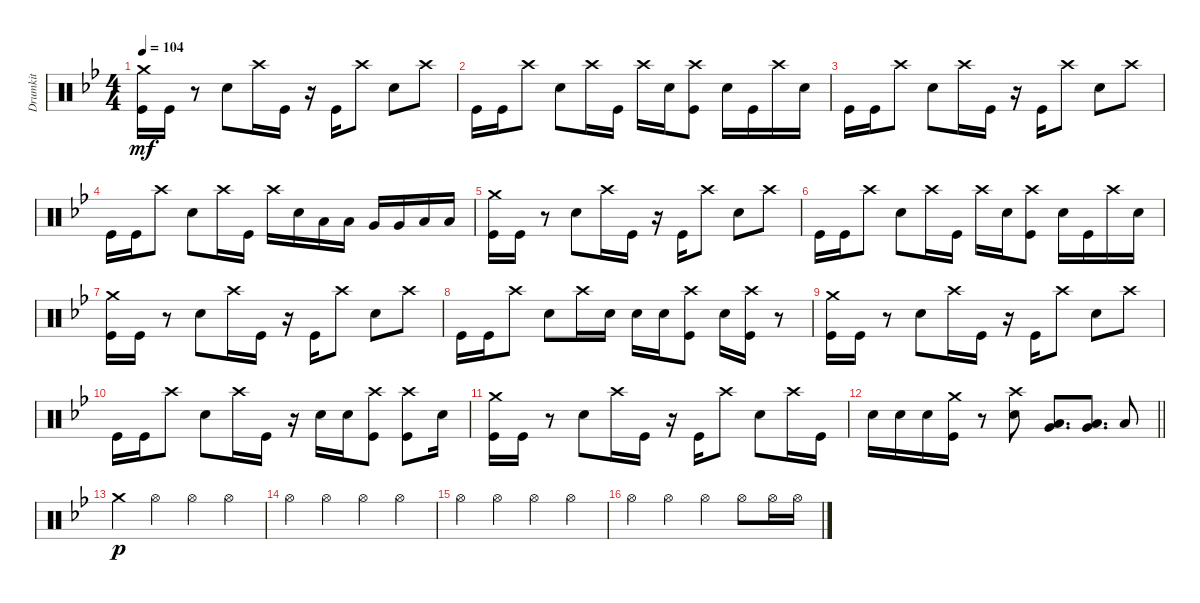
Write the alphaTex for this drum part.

\track ("Drumkit" "Drumkit") {instrument percussion}
\staff {score}
\articulation defaults
\ts (4 4)
\tempo 104
\clef neutral
\ks bb
("Kick (hit)" "Crash medium (hit)").16{dy mf} "Kick (hit)".16 r.8 "Snare (hit) 2".8 "Crash high (hit)".16 "Kick (hit)".16 r.16 "Kick (hit)".16 "Crash high (hit)".8 "Snare (hit) 2".8 "Crash high (hit)".8 |
"Kick (hit)".16 "Kick (hit)".16 "Crash high (hit)".8 "Snare (hit) 2".8 "Crash high (hit)".16 "Kick (hit)".16 "Crash high (hit)".16 "Snare (hit) 2".16 ("Crash high (hit)" "Kick (hit)").8 "Snare (hit) 2".16 "Kick (hit)".16 "Crash high (hit)".16 "Snare (hit) 2".16 |
"Kick (hit)".16 "Kick (hit)".16 "Crash high (hit)".8 "Snare (hit) 2".8 "Crash high (hit)".16 "Kick (hit)".16 r.16 "Kick (hit)".16 "Crash high (hit)".8 "Snare (hit) 2".8 "Crash high (hit)".8 |
"Kick (hit)".16 "Kick (hit)".16 "Crash high (hit)".8 "Snare (hit) 2".8 "Crash high (hit)".16 "Kick (hit)".16 "Crash high (hit)".16 "Snare (hit) 2".16 "Low Tom (hit)".16 "Low Tom (hit)".16 "Very Low Tom (hit)".16 "Very Low Tom (hit)".16 "Low Floor Tom (hit)".16 "Low Floor Tom (hit)".16 |
("Kick (hit)" "Crash medium (hit)").16 "Kick (hit)".16 r.8 "Snare (hit) 2".8 "Crash high (hit)".16 "Kick (hit)".16 r.16 "Kick (hit)".16 "Crash high (hit)".8 "Snare (hit) 2".8 "Crash high (hit)".8 |
"Kick (hit)".16 "Kick (hit)".16 "Crash high (hit)".8 "Snare (hit) 2".8 "Crash high (hit)".16 "Kick (hit)".16 "Crash high (hit)".16 "Snare (hit) 2".16 ("Crash high (hit)" "Kick (hit)").8 "Snare (hit) 2".16 "Kick (hit)".16 "Crash high (hit)".16 "Snare (hit) 2".16 |
("Kick (hit)" "Crash medium (hit)").16 "Kick (hit)".16 r.8 "Snare (hit) 2".8 "Crash high (hit)".16 "Kick (hit)".16 r.16 "Kick (hit)".16 "Crash high (hit)".8 "Snare (hit) 2".8 "Crash high (hit)".8 |
"Kick (hit)".16 "Kick (hit)".16 "Crash high (hit)".8 "Snare (hit) 2".8 "Crash high (hit)".16 "Snare (hit) 2".16 "Snare (hit) 2".16 "Snare (hit) 2".16 ("Crash high (hit)" "Kick (hit)").8 "Snare (hit) 2".16 ("Kick (hit)" "Crash high (hit)").16 r.8 |
("Kick (hit)" "Crash medium (hit)").16 "Kick (hit)".16 r.8 "Snare (hit) 2".8 "Crash high (hit)".16 "Kick (hit)".16 r.16 "Kick (hit)".16 "Crash high (hit)".8 "Snare (hit) 2".8 "Crash high (hit)".8 |
"Kick (hit)".16 "Kick (hit)".16 "Crash high (hit)".8 "Snare (hit) 2".8 "Crash high (hit)".16 "Kick (hit)".16 r.16 "Snare (hit) 2".16 "Snare (hit) 2".16 ("Kick (hit)" "Crash high (hit)").8 ("Crash high (hit)" "Kick (hit)").8 "Snare (hit) 2".16 |
("Kick (hit)" "Crash medium (hit)").16 "Kick (hit)".16 r.8 "Snare (hit) 2".8 "Crash high (hit)".16 "Kick (hit)".16 r.16 "Kick (hit)".16 "Crash high (hit)".8 "Snare (hit) 2".8 "Crash high (hit)".16 "Kick (hit)".16 |
\barLineRight lightlight "Snare (hit) 2".16 "Snare (hit) 2".16 "Snare (hit) 2".16
("Kick (hit)" "Crash medium (hit)").16 r.8 ("Snare (hit) 2" "Crash high (hit)").8 ("Low Tom (hit)" "Very Low Tom (hit)").8{d} ("Very Low Tom (hit)" "Low Floor Tom (hit)").8{d} "Low Floor Tom (hit)".8 |
"Crash medium (hit)".4{dy p} "Hi-Hat (open)".4 "Hi-Hat (open)".4 "Hi-Hat (open)".4 |
"Hi-Hat (open)".4 "Hi-Hat (open)".4 "Hi-Hat (open)".4 "Hi-Hat (open)".4 |
"Hi-Hat (open)".4 "Hi-Hat (open)".4 "Hi-Hat (open)".4 "Hi-Hat (open)".4 |
"Hi-Hat (open)".4 "Hi-Hat (open)".4 "Hi-Hat (open)".4 "Hi-Hat (open)".8 "Hi-Hat (open)".16 "Hi-Hat (open)".16
